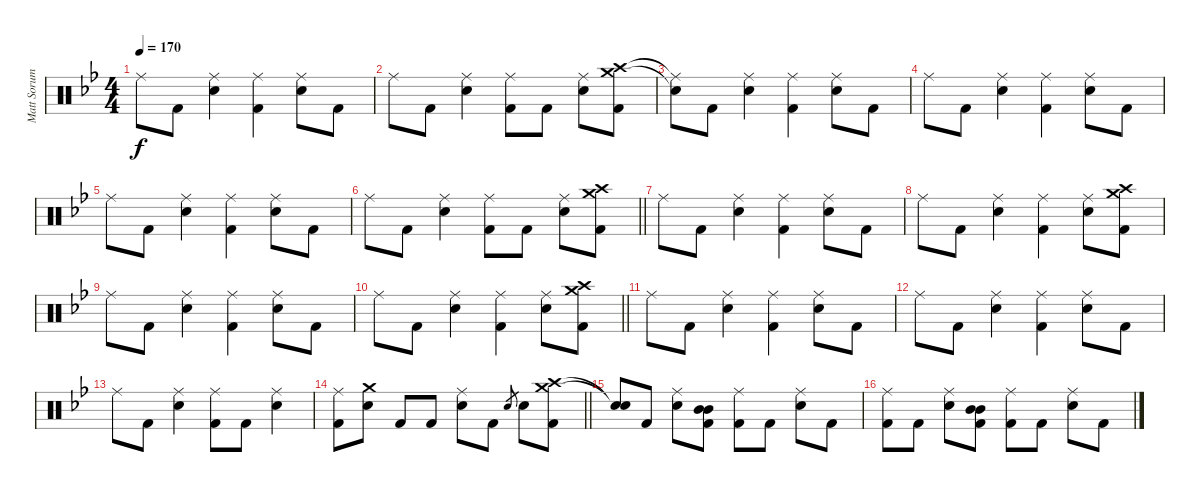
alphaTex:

\track ("Matt Sorum - Drums" "Matt Sorum") {instrument percussion}
\staff {score}
\articulation defaults
\ts (4 4)
\tempo 170
\clef neutral
\ks bb "Ride (middle)".8{dy f} "Kick (hit) 2".8
("Ride (middle)" "Snare (hit) 2").4 ("Ride (middle)" "Kick (hit) 2").4 ("Ride (middle)" "Snare (hit) 2").8 "Kick (hit) 2".8 |
"Ride (middle)".8 "Kick (hit) 2".8 ("Ride (middle)" "Snare (hit) 2").4 ("Ride (middle)" "Kick (hit) 2").8 "Kick (hit) 2".8 ("Ride (middle)" "Snare (hit) 2").8 ("Crash medium (hit)" "Crash high (hit)" "Kick (hit) 2").8 |
("Snare (hit)"{t} "Ride (middle)"{t}).8 "Kick (hit) 2".8 ("Ride (middle)" "Snare (hit) 2").4 ("Ride (middle)" "Kick (hit) 2").4 ("Ride (middle)" "Snare (hit) 2").8 "Kick (hit) 2".8 |
"Ride (middle)".8 "Kick (hit) 2".8 ("Ride (middle)" "Snare (hit) 2").4 ("Ride (middle)" "Kick (hit) 2").4 ("Ride (middle)" "Snare (hit) 2").8 "Kick (hit) 2".8 |
"Ride (middle)".8 "Kick (hit) 2".8 ("Ride (middle)" "Snare (hit) 2").4 ("Ride (middle)" "Kick (hit) 2").4 ("Ride (middle)" "Snare (hit) 2").8 "Kick (hit) 2".8 |
\barLineRight lightlight "Ride (middle)".8 "Kick (hit) 2".8
("Ride (middle)" "Snare (hit) 2").4 ("Ride (middle)" "Kick (hit) 2").8 "Kick (hit) 2".8 ("Ride (middle)" "Snare (hit) 2").8 ("Crash medium (hit)" "Crash high (hit)" "Kick (hit) 2").8 |
"Ride (middle)".8 "Kick (hit) 2".8 ("Ride (middle)" "Snare (hit) 2").4 ("Ride (middle)" "Kick (hit) 2").4 ("Ride (middle)" "Snare (hit) 2").8 "Kick (hit) 2".8 |
"Ride (middle)".8 "Kick (hit) 2".8 ("Ride (middle)" "Snare (hit) 2").4 ("Ride (middle)" "Kick (hit) 2").4 ("Ride (middle)" "Snare (hit) 2").8 ("Crash medium (hit)" "Crash high (hit)" "Kick (hit) 2").8 |
"Ride (middle)".8 "Kick (hit) 2".8 ("Ride (middle)" "Snare (hit) 2").4 ("Ride (middle)" "Kick (hit) 2").4 ("Ride (middle)" "Snare (hit) 2").8 "Kick (hit) 2".8 |
\barLineRight lightlight "Ride (middle)".8 "Kick (hit) 2".8
("Ride (middle)" "Snare (hit) 2").4 ("Ride (middle)" "Kick (hit) 2").4 ("Ride (middle)" "Snare (hit) 2").8 ("Crash medium (hit)" "Crash high (hit)" "Kick (hit) 2").8 |
"Ride (middle)".8 "Kick (hit) 2".8 ("Ride (middle)" "Snare (hit) 2").4 ("Ride (middle)" "Kick (hit) 2").4 ("Ride (middle)" "Snare (hit) 2").8 "Kick (hit) 2".8 |
"Ride (middle)".8 "Kick (hit) 2".8 ("Ride (middle)" "Snare (hit) 2").4 ("Ride (middle)" "Kick (hit) 2").4 ("Ride (middle)" "Snare (hit) 2").8 "Kick (hit) 2".8 |
"Ride (middle)".8 "Kick (hit) 2".8 ("Ride (middle)" "Snare (hit) 2").4 ("Ride (middle)" "Kick (hit) 2").8 "Kick (hit) 2".8 ("Ride (middle)" "Snare (hit) 2").4 |
\barLineRight lightlight
("Ride (middle)" "Kick (hit) 2").8 ("Crash medium (hit)" "Snare (hit) 2").8 "Kick (hit) 2".8 "Kick (hit) 2".8 ("Ride (middle)" "Snare (hit) 2").8 "Kick (hit) 2".8 "Snare (hit) 2".8{gr} "Snare (hit) 2".8 ("Crash medium (hit)" "Crash high (hit)" "Kick (hit) 2").8 |
("Snare (hit)"{t} "Snare (hit)"{t}).8 "Kick (hit) 2".8 ("Ride (middle)" "Snare (hit) 2").8 ("Mid Tom (hit)" "Mid Tom (hit)" "Kick (hit) 2").8 ("Ride (middle)" "Kick (hit) 2").8 "Kick (hit) 2".8 ("Ride (middle)" "Snare (hit) 2").8 "Kick (hit) 2".8 |
("Ride (middle)" "Kick (hit) 2").8 "Kick (hit) 2".8 ("Ride (middle)" "Snare (hit) 2").8 ("Mid Tom (hit)" "Mid Tom (hit)" "Kick (hit) 2").8 ("Ride (middle)" "Kick (hit) 2").8 "Kick (hit) 2".8 ("Ride (middle)" "Snare (hit) 2").8 "Kick (hit) 2".8
